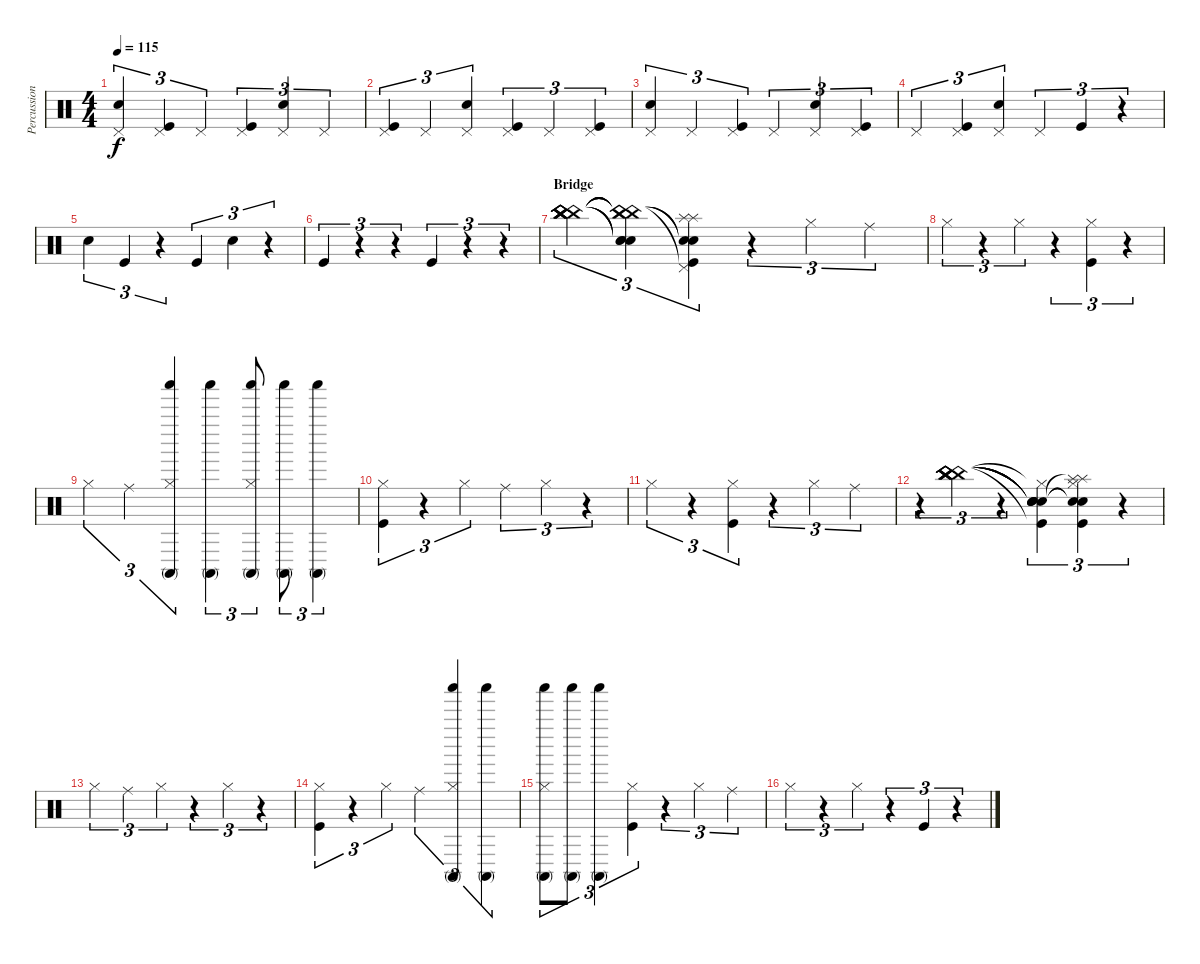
\track ("Percussion" "Percussion") {instrument percussion}
\staff {score}
\articulation defaults
\ts (4 4)
\tempo 115
\clef neutral
\ks c
("Pedal Hi-Hat (hit)" "Electric Snare (hit)").4{tu (3 2) dy f} ("Pedal Hi-Hat (hit)" "Kick (hit)").4{tu (3 2)} "Pedal Hi-Hat (hit)".4{tu (3 2)} ("Pedal Hi-Hat (hit)" "Kick (hit)").4{tu (3 2)} ("Pedal Hi-Hat (hit)" "Electric Snare (hit)").4{tu (3 2)} "Pedal Hi-Hat (hit)".4{tu (3 2)} |
("Pedal Hi-Hat (hit)" "Kick (hit)").4{tu (3 2)} "Pedal Hi-Hat (hit)".4{tu (3 2)} ("Pedal Hi-Hat (hit)" "Electric Snare (hit)").4{tu (3 2)} ("Pedal Hi-Hat (hit)" "Kick (hit)").4{tu (3 2)} "Pedal Hi-Hat (hit)".4{tu (3 2)} ("Pedal Hi-Hat (hit)" "Kick (hit)").4{tu (3 2)} |
("Pedal Hi-Hat (hit)" "Electric Snare (hit)").4{tu (3 2)} "Pedal Hi-Hat (hit)".4{tu (3 2)} ("Pedal Hi-Hat (hit)" "Kick (hit)").4{tu (3 2)} "Pedal Hi-Hat (hit)".4{tu (3 2)} ("Pedal Hi-Hat (hit)" "Electric Snare (hit)").4{tu (3 2)} ("Pedal Hi-Hat (hit)" "Kick (hit)").4{tu (3 2)} |
"Pedal Hi-Hat (hit)".4{tu (3 2)} ("Pedal Hi-Hat (hit)" "Kick (hit)").4{tu (3 2)} ("Pedal Hi-Hat (hit)" "Electric Snare (hit)").4{tu (3 2)} "Pedal Hi-Hat (hit)".4{tu (3 2)} "Kick (hit)".4{tu (3 2)} r.4{tu (3 2)} |
"Electric Snare (hit)".4{tu (3 2)} "Kick (hit)".4{tu (3 2)} r.4{tu (3 2)} "Kick (hit)".4{tu (3 2)} "Electric Snare (hit)".4{tu (3 2)} r.4{tu (3 2)} |
"Kick (hit)".4{tu (3 2)} r.4{tu (3 2)} r.4{tu (3 2)} "Kick (hit)".4{tu (3 2)} r.4{tu (3 2)} r.4{tu (3 2)} |
\section ("" "Bridge")
("China (hit)" "China (hit)" "China (hit)" "China (hit)" "China (hit)" "China (hit)").4{tu (3 2)} ("Snare (hit)"{t} "Snare (hit)"{t} "China (hit)"{t} "China (hit)"{t} "China (hit)"{t} "Snare (hit)"{t}).4{tu (3 2)} ("Splash (hit)" "Splash (hit)" "Pedal Hi-Hat (hit)"{t} "Snare (hit)"{t} "Snare (hit)"{t} "Kick (hit)").4{tu (3 2)} r.4{tu (3 2)} "Hi-Hat (closed)".4{tu (3 2)} "Ride (middle)".4{tu (3 2)} |
"Hi-Hat (closed)".4{tu (3 2)} r.4{tu (3 2)} "Hi-Hat (closed)".4{tu (3 2)} r.4{tu (3 2)} ("Hi-Hat (closed)" "Kick (hit)").4{tu (3 2)} r.4{tu (3 2)} |
"Hi-Hat (closed)".4{tu (3 2)} "Ride (middle)".4{tu (3 2)} ("Hi-Hat (closed)" "Shaker (hit)" "Conga high (mute)").4{tu (3 2)} ("Shaker (hit)" "Conga high (mute)").4{tu (3 2)} ("Hi-Hat (closed)" "Shaker (hit)" "Conga high (mute)").8{tu (3 2)} ("Shaker (hit)" "Conga high (mute)").8{tu (3 2)} ("Shaker (hit)" "Conga high (mute)").4{tu (3 2)} |
("Hi-Hat (closed)" "Kick (hit)").4{tu (3 2)} r.4{tu (3 2)} "Hi-Hat (closed)".4{tu (3 2)} "Ride (middle)".4{tu (3 2)} "Hi-Hat (closed)".4{tu (3 2)} r.4{tu (3 2)} |
"Hi-Hat (closed)".4{tu (3 2)} r.4{tu (3 2)} ("Hi-Hat (closed)" "Kick (hit)").4{tu (3 2)} r.4{tu (3 2)} "Hi-Hat (closed)".4{tu (3 2)} "Ride (middle)".4{tu (3 2)} |
r.4{tu (3 2)} ("China (hit)" "China (hit)" "China (hit)" "China (hit)" "China (hit)" "China (hit)").4{tu (3 2)} r.4{tu (3 2)} ("Snare (hit)"{t} "Snare (hit)"{t} "Hi-Hat (closed)"{t} "Snare (hit)"{t} "Snare (hit)"{t} "Kick (hit)"{t}).4{tu (3 2)} ("Splash (hit)" "Splash (hit)"{t} "Hi-Hat (closed)" "Electric Snare (hit)"{t} "Snare (hit)"{t} "Kick (hit)").4{tu (3 2)} r.4{tu (3 2)} |
"Hi-Hat (closed)".4{tu (3 2)} "Ride (middle)".4{tu (3 2)} "Hi-Hat (closed)".4{tu (3 2)} r.4{tu (3 2)} "Hi-Hat (closed)".4{tu (3 2)} r.4{tu (3 2)} |
("Hi-Hat (closed)" "Kick (hit)").4{tu (3 2)} r.4{tu (3 2)} "Hi-Hat (closed)".4{tu (3 2)} "Ride (middle)".4{tu (3 2)} ("Hi-Hat (closed)" "Shaker (hit)" "Conga high (mute)").4{tu (3 2)} ("Shaker (hit)" "Conga high (mute)").4{tu (3 2)} |
("Hi-Hat (closed)" "Shaker (hit)" "Conga high (mute)").8{tu (3 2)} ("Shaker (hit)" "Conga high (mute)").8{tu (3 2)} ("Shaker (hit)" "Conga high (mute)").4{tu (3 2)} ("Hi-Hat (closed)" "Kick (hit)").4{tu (3 2)} r.4{tu (3 2)} "Hi-Hat (closed)".4{tu (3 2)} "Ride (middle)".4{tu (3 2)} |
"Hi-Hat (closed)".4{tu (3 2)} r.4{tu (3 2)} "Hi-Hat (closed)".4{tu (3 2)} r.4{tu (3 2)} "Kick (hit)".4{tu (3 2)} r.4{tu (3 2)}
